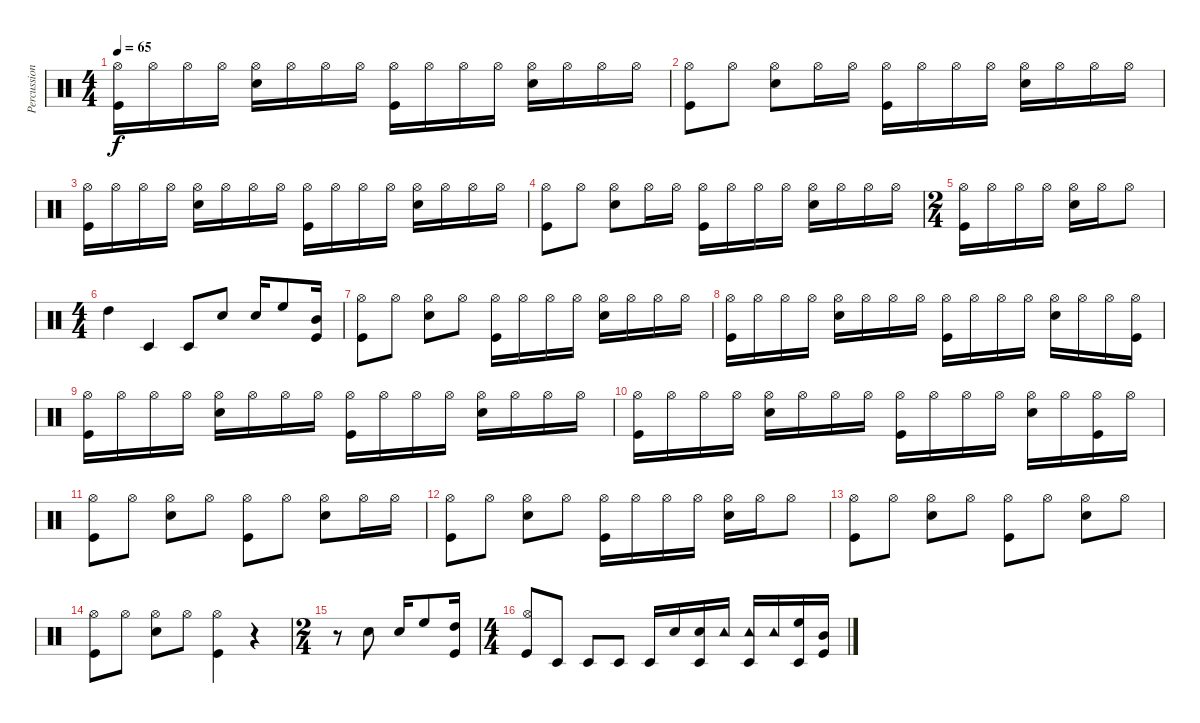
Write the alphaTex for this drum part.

\track ("Percussion" "Percussion") {instrument percussion}
\staff {score}
\articulation defaults
\ts (4 4)
\tempo 65
\clef neutral
\ks c
("Hi-Hat (open)" "Kick (hit)").16{dy f} "Hi-Hat (open)".16 "Hi-Hat (open)".16 "Hi-Hat (open)".16 ("Hi-Hat (open)" "Snare (hit) 2").16 "Hi-Hat (open)".16 "Hi-Hat (open)".16 "Hi-Hat (open)".16 ("Hi-Hat (open)" "Kick (hit)").16 "Hi-Hat (open)".16 "Hi-Hat (open)".16 "Hi-Hat (open)".16 ("Hi-Hat (open)" "Snare (hit) 2").16 "Hi-Hat (open)".16 "Hi-Hat (open)".16 "Hi-Hat (open)".16 |
("Hi-Hat (open)" "Kick (hit)").8 "Hi-Hat (open)".8 ("Hi-Hat (open)" "Snare (hit) 2").8 "Hi-Hat (open)".16 "Hi-Hat (open)".16 ("Hi-Hat (open)" "Kick (hit)").16 "Hi-Hat (open)".16 "Hi-Hat (open)".16 "Hi-Hat (open)".16 ("Hi-Hat (open)" "Snare (hit) 2").16 "Hi-Hat (open)".16 "Hi-Hat (open)".16 "Hi-Hat (open)".16 |
("Hi-Hat (open)" "Kick (hit)").16 "Hi-Hat (open)".16 "Hi-Hat (open)".16 "Hi-Hat (open)".16 ("Hi-Hat (open)" "Snare (hit) 2").16 "Hi-Hat (open)".16 "Hi-Hat (open)".16 "Hi-Hat (open)".16 ("Hi-Hat (open)" "Kick (hit)").16 "Hi-Hat (open)".16 "Hi-Hat (open)".16 "Hi-Hat (open)".16 ("Hi-Hat (open)" "Snare (hit) 2").16 "Hi-Hat (open)".16 "Hi-Hat (open)".16 "Hi-Hat (open)".16 |
("Hi-Hat (open)" "Kick (hit)").8 "Hi-Hat (open)".8 ("Hi-Hat (open)" "Snare (hit) 2").8 "Hi-Hat (open)".16 "Hi-Hat (open)".16 ("Hi-Hat (open)" "Kick (hit)").16 "Hi-Hat (open)".16 "Hi-Hat (open)".16 "Hi-Hat (open)".16 ("Hi-Hat (open)" "Snare (hit) 2").16 "Hi-Hat (open)".16 "Hi-Hat (open)".16 "Hi-Hat (open)".16 |
\ts (2 4)
("Hi-Hat (open)" "Kick (hit)").16 "Hi-Hat (open)".16 "Hi-Hat (open)".16 "Hi-Hat (open)".16 ("Hi-Hat (open)" "Snare (hit) 2").16 "Hi-Hat (open)".16 "Hi-Hat (open)".8 |
\ts (4 4)
"High Tom (hit)".4 "Timbale low (hit)".4 "Timbale low (hit)".8 "Snare (hit) 2".8 "Snare (hit) 2".16 "High Floor Tom (hit)".8 ("Mid Tom (hit)" "Kick (hit)").16 |
("Hi-Hat (open)" "Kick (hit)").8 "Hi-Hat (open)".8 ("Hi-Hat (open)" "Snare (hit) 2").8 "Hi-Hat (open)".8 ("Hi-Hat (open)" "Kick (hit)").16 "Hi-Hat (open)".16 "Hi-Hat (open)".16 "Hi-Hat (open)".16 ("Hi-Hat (open)" "Snare (hit) 2").16 "Hi-Hat (open)".16 "Hi-Hat (open)".16 "Hi-Hat (open)".16 |
("Hi-Hat (open)" "Kick (hit)").16 "Hi-Hat (open)".16 "Hi-Hat (open)".16 "Hi-Hat (open)".16 ("Hi-Hat (open)" "Snare (hit) 2").16 "Hi-Hat (open)".16 "Hi-Hat (open)".16 "Hi-Hat (open)".16 ("Hi-Hat (open)" "Kick (hit)").16 "Hi-Hat (open)".16 "Hi-Hat (open)".16 "Hi-Hat (open)".16 ("Hi-Hat (open)" "Snare (hit) 2").16 "Hi-Hat (open)".16 "Hi-Hat (open)".16 ("Hi-Hat (open)" "Kick (hit)").16 |
("Hi-Hat (open)" "Kick (hit)").16 "Hi-Hat (open)".16 "Hi-Hat (open)".16 "Hi-Hat (open)".16 ("Hi-Hat (open)" "Snare (hit) 2").16 "Hi-Hat (open)".16 "Hi-Hat (open)".16 "Hi-Hat (open)".16 ("Hi-Hat (open)" "Kick (hit)").16 "Hi-Hat (open)".16 "Hi-Hat (open)".16 "Hi-Hat (open)".16 ("Hi-Hat (open)" "Snare (hit) 2").16 "Hi-Hat (open)".16 "Hi-Hat (open)".16 "Hi-Hat (open)".16 |
("Hi-Hat (open)" "Kick (hit)").16 "Hi-Hat (open)".16 "Hi-Hat (open)".16 "Hi-Hat (open)".16 ("Hi-Hat (open)" "Snare (hit) 2").16 "Hi-Hat (open)".16 "Hi-Hat (open)".16 "Hi-Hat (open)".16 ("Hi-Hat (open)" "Kick (hit)").16 "Hi-Hat (open)".16 "Hi-Hat (open)".16 "Hi-Hat (open)".16 ("Hi-Hat (open)" "Snare (hit) 2").16 "Hi-Hat (open)".16 ("Hi-Hat (open)" "Kick (hit)").16 "Hi-Hat (open)".16 |
("Hi-Hat (open)" "Kick (hit)").8 "Hi-Hat (open)".8 ("Hi-Hat (open)" "Snare (hit) 2").8 "Hi-Hat (open)".8 ("Hi-Hat (open)" "Kick (hit)").8 "Hi-Hat (open)".8 ("Hi-Hat (open)" "Snare (hit) 2").8 "Hi-Hat (open)".16 "Hi-Hat (open)".16 |
("Hi-Hat (open)" "Kick (hit)").8 "Hi-Hat (open)".8 ("Hi-Hat (open)" "Snare (hit) 2").8 "Hi-Hat (open)".8 ("Hi-Hat (open)" "Kick (hit)").16 "Hi-Hat (open)".16 "Hi-Hat (open)".16 "Hi-Hat (open)".16 ("Hi-Hat (open)" "Snare (hit) 2").16 "Hi-Hat (open)".16 "Hi-Hat (open)".8 |
("Hi-Hat (open)" "Kick (hit)").8 "Hi-Hat (open)".8 ("Hi-Hat (open)" "Snare (hit) 2").8 "Hi-Hat (open)".8 ("Hi-Hat (open)" "Kick (hit)").8 "Hi-Hat (open)".8 ("Hi-Hat (open)" "Snare (hit) 2").8 "Hi-Hat (open)".8 |
("Hi-Hat (open)" "Kick (hit)").8 "Hi-Hat (open)".8 ("Hi-Hat (open)" "Snare (hit) 2").8 "Hi-Hat (open)".8 ("Hi-Hat (open)" "Kick (hit)").4 r.4 |
\ts (2 4)
r.8 "Snare (hit) 2".8 "Snare (hit) 2".16 "High Floor Tom (hit)".8 ("High Tom (hit)" "Kick (hit)").16 |
\ts (4 4)
("Hi-Hat (open)" "Kick (hit)").8 "Timbale low (hit)".8 "Timbale low (hit)".8 "Timbale low (hit)".8 "Timbale low (hit)".16 "Snare (hit) 2".16 ("Snare (hit) 2" "Timbale low (hit)").16 "Tambourine (hit)".16 ("Tambourine (hit)" "Timbale low (hit)").16 "Tambourine (hit)".16 ("Timbale low (hit)" "High Floor Tom (hit)").16 ("Mid Tom (hit)" "Kick (hit)").16
